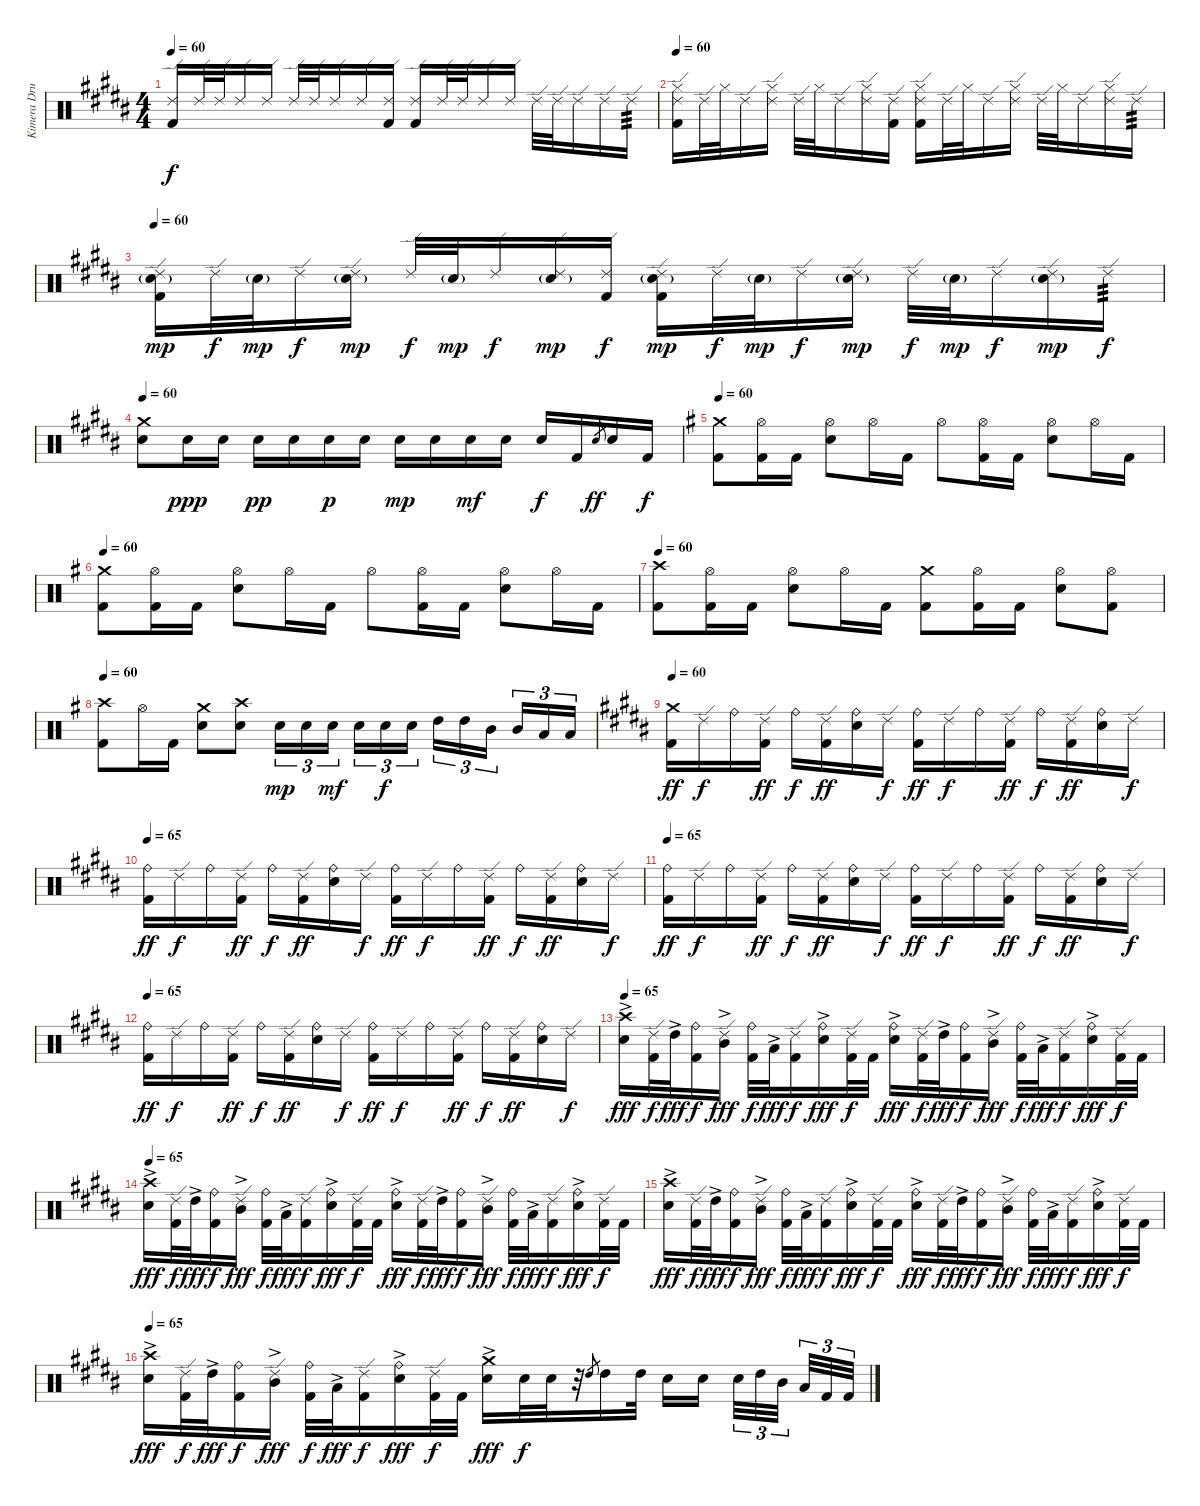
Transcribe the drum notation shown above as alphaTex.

\track ("Kimera Drummer" "Kimera Dru") {instrument percussion}
\staff {score}
\articulation defaults
\ts (4 4)
\tempo 60
\clef neutral
\ks b
("Ride (edge) 2" "Kick (hit) 2").16{dy f} "Ride (edge) 2".32 "Ride (edge) 2".32 "Ride (edge) 2".16 "Ride (edge) 2".16 "Ride (edge) 2".32 "Ride (edge) 2".32 "Ride (edge) 2".16 "Ride (edge) 2".16 ("Ride (edge) 2" "Kick (hit) 2").16 ("Ride (edge) 2" "Kick (hit) 2").16 "Ride (edge) 2".32 "Ride (edge) 2".32 "Ride (edge) 2".16 "Ride (edge) 2".16 "Ride (edge) 2".32 "Ride (edge) 2".32 "Ride (edge) 2".16 "Ride (edge) 2".16 "Ride (edge) 2".16{tp 3} |
\tempo 60
("Ride (edge) 2" "Hi-Hat (closed)" "Kick (hit) 2").16 "Ride (edge) 2".32 "Hi-Hat (closed)".32 "Ride (edge) 2".16 ("Ride (edge) 2" "Hi-Hat (closed)").16 "Ride (edge) 2".32 "Hi-Hat (closed)".32 "Ride (edge) 2".16 ("Ride (edge) 2" "Hi-Hat (closed)").16 ("Ride (edge) 2" "Kick (hit) 2").16 ("Ride (edge) 2" "Hi-Hat (closed)" "Kick (hit) 2").16 "Ride (edge) 2".32 "Hi-Hat (closed)".32 "Ride (edge) 2".16 ("Ride (edge) 2" "Hi-Hat (closed)").16 "Ride (edge) 2".32 "Hi-Hat (closed)".32 "Ride (edge) 2".16 ("Ride (edge) 2" "Hi-Hat (closed)").16 "Ride (edge) 2".16{tp 3} |
\tempo 60
("Ride (edge) 2" "Electric Snare (hit)"{g} "Kick (hit) 2").16{dy mp} "Ride (edge) 2".32{dy f} "Electric Snare (hit)"{g}.32{dy mp} "Ride (edge) 2".16{dy f} ("Ride (edge) 2" "Electric Snare (hit)"{g}).16{dy mp} "Ride (edge) 2".32{dy f} "Electric Snare (hit)"{g}.32{dy mp} "Ride (edge) 2".16{dy f} ("Ride (edge) 2" "Electric Snare (hit)"{g}).16{dy mp} ("Ride (edge) 2" "Kick (hit) 2").16{dy f} ("Ride (edge) 2" "Electric Snare (hit)"{g} "Kick (hit) 2").16{dy mp} "Ride (edge) 2".32{dy f} "Electric Snare (hit)"{g}.32{dy mp} "Ride (edge) 2".16{dy f} ("Ride (edge) 2" "Electric Snare (hit)"{g}).16{dy mp} "Ride (edge) 2".32{dy f} "Electric Snare (hit)"{g}.32{dy mp} "Ride (edge) 2".16{dy f} ("Ride (edge) 2" "Electric Snare (hit)"{g}).16{dy mp} "Ride (edge) 2".16{tp 3 dy f} |
\tempo 60
("Crash medium (hit)" "Electric Snare (hit)").8 "Electric Snare (hit)".16{dy ppp} "Electric Snare (hit)".16 "Electric Snare (hit)".16{dy pp} "Electric Snare (hit)".16 "Electric Snare (hit)".16{dy p} "Electric Snare (hit)".16 "Electric Snare (hit)".16{dy mp} "Electric Snare (hit)".16 "Electric Snare (hit)".16{dy mf} "Electric Snare (hit)".16 "Electric Snare (hit)".16{dy f} "Kick (hit) 2".16 "Electric Snare (hit)".8{gr dy ff} "Electric Snare (hit)".16 "Kick (hit) 2".16{dy f} |
\tempo 60
\ks g
("Crash medium (hit)" "Kick (hit) 2").8 ("Hi-Hat (open)" "Kick (hit) 2").16 "Kick (hit) 2".16 ("Hi-Hat (open)" "Electric Snare (hit)").8 "Hi-Hat (open)".16 "Kick (hit) 2".16 "Hi-Hat (open)".8 ("Hi-Hat (open)" "Kick (hit) 2").16 "Kick (hit) 2".16 ("Hi-Hat (open)" "Electric Snare (hit)").8 "Hi-Hat (open)".16 "Kick (hit) 2".16 |
\tempo 60
("Crash medium (hit)" "Kick (hit) 2").8 ("Hi-Hat (open)" "Kick (hit) 2").16 "Kick (hit) 2".16 ("Hi-Hat (open)" "Electric Snare (hit)").8 "Hi-Hat (open)".16 "Kick (hit) 2".16 "Hi-Hat (open)".8 ("Hi-Hat (open)" "Kick (hit) 2").16 "Kick (hit) 2".16 ("Hi-Hat (open)" "Electric Snare (hit)").8 "Hi-Hat (open)".16 "Kick (hit) 2".16 |
\tempo 60
("Crash high (hit)" "Kick (hit) 2").8 ("Hi-Hat (open)" "Kick (hit) 2").16 "Kick (hit) 2".16 ("Hi-Hat (open)" "Electric Snare (hit)").8 "Hi-Hat (open)".16 "Kick (hit) 2".16 ("Crash medium (hit)" "Kick (hit) 2").8 ("Hi-Hat (open)" "Kick (hit) 2").16 "Kick (hit) 2".16 ("Hi-Hat (open)" "Electric Snare (hit)").8 ("Hi-Hat (open)" "Kick (hit) 2").8 |
\tempo 60
("Crash high (hit)" "Kick (hit) 2").8 "Hi-Hat (open)".16 "Kick (hit) 2".16 ("Crash medium (hit)" "Electric Snare (hit)").8 ("Crash high (hit)" "Electric Snare (hit)").8 "Electric Snare (hit)".16{tu (3 2) dy mp} "Electric Snare (hit)".16{tu (3 2)} "Electric Snare (hit)".16{tu (3 2) dy mf} "Electric Snare (hit)".16{tu (3 2)} "Electric Snare (hit)".16{tu (3 2) dy f} "Electric Snare (hit)".16{tu (3 2)} "High Tom (hit)".16{tu (3 2)} "High Tom (hit)".16{tu (3 2)} "Mid Tom (hit)".16{tu (3 2)} "Mid Tom (hit)".16{tu (3 2)} "Low Floor Tom (hit)".16{tu (3 2)} "Low Floor Tom (hit)".16{tu (3 2)} |
\tempo 65
\tempo 60
\ks b
("Crash medium (hit)" "Kick (hit) 2").16{dy ff volume 16} "Ride (edge) 2".16{dy f} "Ride (bell)".16 ("Ride (edge) 2" "Kick (hit) 2").16{dy ff} "Ride (bell)".16{dy f} ("Ride (edge) 2" "Kick (hit) 2").16{dy ff} ("Ride (bell)" "Electric Snare (hit)").16 "Ride (edge) 2".16{dy f} ("Ride (bell)" "Kick (hit) 2").16{dy ff} "Ride (edge) 2".16{dy f} "Ride (bell)".16 ("Ride (edge) 2" "Kick (hit) 2").16{dy ff} "Ride (bell)".16{dy f} ("Ride (edge) 2" "Kick (hit) 2").16{dy ff} ("Ride (bell)" "Electric Snare (hit)").16 "Ride (edge) 2".16{dy f} |
\tempo 65
("Ride (bell)" "Kick (hit) 2").16{dy ff volume 16} "Ride (edge) 2".16{dy f} "Ride (bell)".16 ("Ride (edge) 2" "Kick (hit) 2").16{dy ff} "Ride (bell)".16{dy f} ("Ride (edge) 2" "Kick (hit) 2").16{dy ff} ("Ride (bell)" "Electric Snare (hit)").16 "Ride (edge) 2".16{dy f} ("Ride (bell)" "Kick (hit) 2").16{dy ff} "Ride (edge) 2".16{dy f} "Ride (bell)".16 ("Ride (edge) 2" "Kick (hit) 2").16{dy ff} "Ride (bell)".16{dy f} ("Ride (edge) 2" "Kick (hit) 2").16{dy ff} ("Ride (bell)" "Electric Snare (hit)").16 "Ride (edge) 2".16{dy f} |
\tempo 65
("Ride (bell)" "Kick (hit) 2").16{dy ff volume 16} "Ride (edge) 2".16{dy f} "Ride (bell)".16 ("Ride (edge) 2" "Kick (hit) 2").16{dy ff} "Ride (bell)".16{dy f} ("Ride (edge) 2" "Kick (hit) 2").16{dy ff} ("Ride (bell)" "Electric Snare (hit)").16 "Ride (edge) 2".16{dy f} ("Ride (bell)" "Kick (hit) 2").16{dy ff} "Ride (edge) 2".16{dy f} "Ride (bell)".16 ("Ride (edge) 2" "Kick (hit) 2").16{dy ff} "Ride (bell)".16{dy f} ("Ride (edge) 2" "Kick (hit) 2").16{dy ff} ("Ride (bell)" "Electric Snare (hit)").16 "Ride (edge) 2".16{dy f} |
\tempo 65
("Ride (bell)" "Kick (hit) 2").16{dy ff volume 16} "Ride (edge) 2".16{dy f} "Ride (bell)".16 ("Ride (edge) 2" "Kick (hit) 2").16{dy ff} "Ride (bell)".16{dy f} ("Ride (edge) 2" "Kick (hit) 2").16{dy ff} ("Ride (bell)" "Electric Snare (hit)").16 "Ride (edge) 2".16{dy f} ("Ride (bell)" "Kick (hit) 2").16{dy ff} "Ride (edge) 2".16{dy f} "Ride (bell)".16 ("Ride (edge) 2" "Kick (hit) 2").16{dy ff} "Ride (bell)".16{dy f} ("Ride (edge) 2" "Kick (hit) 2").16{dy ff} ("Ride (bell)" "Electric Snare (hit)").16 "Ride (edge) 2".16{dy f} |
\tempo 65
("Crash high (hit)" "Electric Snare (hit)"{ac}).16{dy fff} ("Ride (edge) 2" "Kick (hit) 2").32{dy f} "High Tom (hit)"{ac}.32{dy fff} ("Ride (bell)" "Kick (hit) 2").16{dy f} ("Ride (edge) 2" "Mid Tom (hit)"{ac}).16{dy fff} ("Ride (bell)" "Kick (hit) 2").32{dy f} "Low Floor Tom (hit)"{ac}.32{dy fff} ("Ride (edge) 2" "Kick (hit) 2").16{dy f} ("Ride (bell)" "Electric Snare (hit)"{ac}).16{dy fff} ("Ride (edge) 2" "Kick (hit) 2").32{dy f} "Kick (hit) 2".32 ("Ride (bell)" "Electric Snare (hit)"{ac}).16{dy fff} ("Ride (edge) 2" "Kick (hit) 2").32{dy f} "High Tom (hit)"{ac}.32{dy fff} ("Ride (bell)" "Kick (hit) 2").16{dy f} ("Ride (edge) 2" "Mid Tom (hit)"{ac}).16{dy fff} ("Ride (bell)" "Kick (hit) 2").32{dy f} "Low Floor Tom (hit)"{ac}.32{dy fff} ("Ride (edge) 2" "Kick (hit) 2").16{dy f} ("Ride (bell)" "Electric Snare (hit)"{ac}).16{dy fff} ("Ride (edge) 2" "Kick (hit) 2").32{dy f} "Kick (hit) 2".32 |
\tempo 65
("Crash high (hit)" "Electric Snare (hit)"{ac}).16{dy fff} ("Ride (edge) 2" "Kick (hit) 2").32{dy f} "High Tom (hit)"{ac}.32{dy fff} ("Ride (bell)" "Kick (hit) 2").16{dy f} ("Ride (edge) 2" "Mid Tom (hit)"{ac}).16{dy fff} ("Ride (bell)" "Kick (hit) 2").32{dy f} "Low Floor Tom (hit)"{ac}.32{dy fff} ("Ride (edge) 2" "Kick (hit) 2").16{dy f} ("Ride (bell)" "Electric Snare (hit)"{ac}).16{dy fff} ("Ride (edge) 2" "Kick (hit) 2").32{dy f} "Kick (hit) 2".32 ("Ride (bell)" "Electric Snare (hit)"{ac}).16{dy fff} ("Ride (edge) 2" "Kick (hit) 2").32{dy f} "High Tom (hit)"{ac}.32{dy fff} ("Ride (bell)" "Kick (hit) 2").16{dy f} ("Ride (edge) 2" "Mid Tom (hit)"{ac}).16{dy fff} ("Ride (bell)" "Kick (hit) 2").32{dy f} "Low Floor Tom (hit)"{ac}.32{dy fff} ("Ride (edge) 2" "Kick (hit) 2").16{dy f} ("Ride (bell)" "Electric Snare (hit)"{ac}).16{dy fff} ("Ride (edge) 2" "Kick (hit) 2").32{dy f} "Kick (hit) 2".32 |
("Crash high (hit)" "Electric Snare (hit)"{ac}).16{dy fff} ("Ride (edge) 2" "Kick (hit) 2").32{dy f} "High Tom (hit)"{ac}.32{dy fff} ("Ride (bell)" "Kick (hit) 2").16{dy f} ("Ride (edge) 2" "Mid Tom (hit)"{ac}).16{dy fff} ("Ride (bell)" "Kick (hit) 2").32{dy f} "Low Floor Tom (hit)"{ac}.32{dy fff} ("Ride (edge) 2" "Kick (hit) 2").16{dy f} ("Ride (bell)" "Electric Snare (hit)"{ac}).16{dy fff} ("Ride (edge) 2" "Kick (hit) 2").32{dy f} "Kick (hit) 2".32 ("Ride (bell)" "Electric Snare (hit)"{ac}).16{dy fff} ("Ride (edge) 2" "Kick (hit) 2").32{dy f} "High Tom (hit)"{ac}.32{dy fff} ("Ride (bell)" "Kick (hit) 2").16{dy f} ("Ride (edge) 2" "Mid Tom (hit)"{ac}).16{dy fff} ("Ride (bell)" "Kick (hit) 2").32{dy f} "Low Floor Tom (hit)"{ac}.32{dy fff} ("Ride (edge) 2" "Kick (hit) 2").16{dy f} ("Ride (bell)" "Electric Snare (hit)"{ac}).16{dy fff} ("Ride (edge) 2" "Kick (hit) 2").32{dy f} "Kick (hit) 2".32 |
\tempo 65
("Crash high (hit)" "Electric Snare (hit)"{ac}).16{dy fff} ("Ride (edge) 2" "Kick (hit) 2").32{dy f} "High Tom (hit)"{ac}.32{dy fff} ("Ride (bell)" "Kick (hit) 2").16{dy f} ("Ride (edge) 2" "Mid Tom (hit)"{ac}).16{dy fff} ("Ride (bell)" "Kick (hit) 2").32{dy f} "Low Floor Tom (hit)"{ac}.32{dy fff} ("Ride (edge) 2" "Kick (hit) 2").16{dy f} ("Ride (bell)" "Electric Snare (hit)"{ac}).16{dy fff} ("Ride (edge) 2" "Kick (hit) 2").32{dy f} "Kick (hit) 2".32 ("Crash medium (hit)" "Electric Snare (hit)"{ac}).16{dy fff} "Electric Snare (hit)".32{dy f} "Electric Snare (hit)".32 r.32 "High Tom (hit)".8{gr} "High Tom (hit)".16 "High Tom (hit)".32 "Electric Snare (hit)".16 "Electric Snare (hit)".16 "Electric Snare (hit)".32{tu (3 2)} "High Tom (hit)".32{tu (3 2)} "Mid Tom (hit)".32{tu (3 2)} "Low Floor Tom (hit)".32{tu (3 2)} "Kick (hit) 2".32{tu (3 2)} "Kick (hit) 2".32{tu (3 2)}
